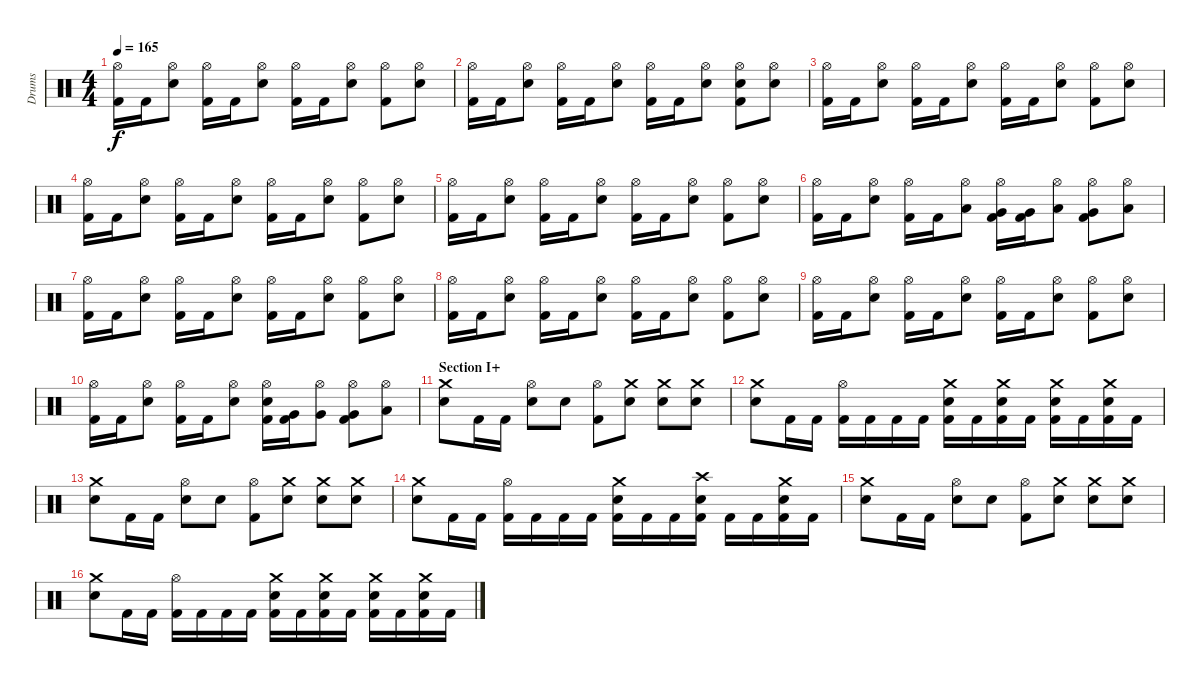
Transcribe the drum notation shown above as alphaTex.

\track ("Drums" "Drums") {instrument percussion}
\staff {score}
\articulation defaults
\ts (4 4)
\tempo 165
\clef neutral
\ks c
("Hi-Hat (open)" "Kick (hit) 2").16{dy f} "Kick (hit) 2".16 ("Hi-Hat (open)" "Snare (hit) 2").8 ("Hi-Hat (open)" "Kick (hit) 2").16 "Kick (hit) 2".16 ("Hi-Hat (open)" "Snare (hit) 2").8 ("Hi-Hat (open)" "Kick (hit) 2").16 "Kick (hit) 2".16 ("Hi-Hat (open)" "Snare (hit) 2").8 ("Hi-Hat (open)" "Kick (hit) 2").8 ("Hi-Hat (open)" "Snare (hit) 2").8 |
("Hi-Hat (open)" "Kick (hit) 2").16 "Kick (hit) 2".16 ("Hi-Hat (open)" "Snare (hit) 2").8 ("Hi-Hat (open)" "Kick (hit) 2").16 "Kick (hit) 2".16 ("Hi-Hat (open)" "Snare (hit) 2").8 ("Hi-Hat (open)" "Kick (hit) 2").16 "Kick (hit) 2".16 ("Hi-Hat (open)" "Snare (hit) 2").8 ("Hi-Hat (open)" "Snare (hit) 2" "Kick (hit) 2").8 ("Hi-Hat (open)" "Snare (hit) 2").8 |
("Hi-Hat (open)" "Kick (hit) 2").16 "Kick (hit) 2".16 ("Hi-Hat (open)" "Snare (hit) 2").8 ("Hi-Hat (open)" "Kick (hit) 2").16 "Kick (hit) 2".16 ("Hi-Hat (open)" "Snare (hit) 2").8 ("Hi-Hat (open)" "Kick (hit) 2").16 "Kick (hit) 2".16 ("Hi-Hat (open)" "Snare (hit) 2").8 ("Hi-Hat (open)" "Kick (hit) 2").8 ("Hi-Hat (open)" "Snare (hit) 2").8 |
("Hi-Hat (open)" "Kick (hit) 2").16 "Kick (hit) 2".16 ("Hi-Hat (open)" "Snare (hit) 2").8 ("Hi-Hat (open)" "Kick (hit) 2").16 "Kick (hit) 2".16 ("Hi-Hat (open)" "Snare (hit) 2").8 ("Hi-Hat (open)" "Kick (hit) 2").16 "Kick (hit) 2".16 ("Hi-Hat (open)" "Snare (hit) 2").8 ("Hi-Hat (open)" "Kick (hit) 2").8 ("Hi-Hat (open)" "Snare (hit) 2").8 |
("Hi-Hat (open)" "Kick (hit) 2").16 "Kick (hit) 2".16 ("Hi-Hat (open)" "Snare (hit) 2").8 ("Hi-Hat (open)" "Kick (hit) 2").16 "Kick (hit) 2".16 ("Hi-Hat (open)" "Snare (hit) 2").8 ("Hi-Hat (open)" "Kick (hit) 2").16 "Kick (hit) 2".16 ("Hi-Hat (open)" "Snare (hit) 2").8 ("Hi-Hat (open)" "Kick (hit) 2").8 ("Hi-Hat (open)" "Snare (hit) 2").8 |
("Hi-Hat (open)" "Kick (hit) 2").16 "Kick (hit) 2".16 ("Hi-Hat (open)" "Snare (hit) 2").8 ("Hi-Hat (open)" "Kick (hit) 2").16 "Kick (hit) 2".16 ("Hi-Hat (open)" "Low Tom (hit)").8 ("Hi-Hat (open)" "Very Low Tom (hit)" "Kick (hit) 2").16 ("Very Low Tom (hit)" "Kick (hit) 2").16 ("Hi-Hat (open)" "Low Tom (hit)").8 ("Hi-Hat (open)" "Very Low Tom (hit)" "Kick (hit) 2").8 ("Hi-Hat (open)" "Low Tom (hit)").8 |
("Hi-Hat (open)" "Kick (hit) 2").16 "Kick (hit) 2".16 ("Hi-Hat (open)" "Snare (hit) 2").8 ("Hi-Hat (open)" "Kick (hit) 2").16 "Kick (hit) 2".16 ("Hi-Hat (open)" "Snare (hit) 2").8 ("Hi-Hat (open)" "Kick (hit) 2").16 "Kick (hit) 2".16 ("Hi-Hat (open)" "Snare (hit) 2").8 ("Hi-Hat (open)" "Kick (hit) 2").8 ("Hi-Hat (open)" "Snare (hit) 2").8 |
("Hi-Hat (open)" "Kick (hit) 2").16 "Kick (hit) 2".16 ("Hi-Hat (open)" "Snare (hit) 2").8 ("Hi-Hat (open)" "Kick (hit) 2").16 "Kick (hit) 2".16 ("Hi-Hat (open)" "Snare (hit) 2").8 ("Hi-Hat (open)" "Kick (hit) 2").16 "Kick (hit) 2".16 ("Hi-Hat (open)" "Snare (hit) 2").8 ("Hi-Hat (open)" "Kick (hit) 2").8 ("Hi-Hat (open)" "Snare (hit) 2").8 |
("Hi-Hat (open)" "Kick (hit) 2").16 "Kick (hit) 2".16 ("Hi-Hat (open)" "Snare (hit) 2").8 ("Hi-Hat (open)" "Kick (hit) 2").16 "Kick (hit) 2".16 ("Hi-Hat (open)" "Snare (hit) 2").8 ("Hi-Hat (open)" "Kick (hit) 2").16 "Kick (hit) 2".16 ("Hi-Hat (open)" "Snare (hit) 2").8 ("Hi-Hat (open)" "Kick (hit) 2").8 ("Hi-Hat (open)" "Snare (hit) 2").8 |
("Hi-Hat (open)" "Kick (hit) 2").16 "Kick (hit) 2".16 ("Hi-Hat (open)" "Snare (hit) 2").8 ("Hi-Hat (open)" "Kick (hit) 2").16 "Kick (hit) 2".16 ("Hi-Hat (open)" "Snare (hit) 2").8 ("Hi-Hat (open)" "Snare (hit) 2" "Kick (hit) 2").16 ("Very Low Tom (hit)" "Kick (hit) 2").16 ("Hi-Hat (open)" "Very Low Tom (hit)").8 ("Hi-Hat (open)" "Very Low Tom (hit)" "Kick (hit) 2").8 ("Hi-Hat (open)" "Low Tom (hit)").8 |
\section ("" "Section I+")
("Crash medium (hit)" "Snare (hit) 2").8 "Kick (hit) 2".16 "Kick (hit) 2".16 ("Hi-Hat (open)" "Snare (hit) 2").8 "Snare (hit) 2".8 ("Hi-Hat (open)" "Kick (hit) 2").8 ("Crash medium (hit)" "Snare (hit) 2").8 ("Crash medium (hit)" "Snare (hit) 2").8 ("Crash medium (hit)" "Snare (hit) 2").8 |
("Crash medium (hit)" "Snare (hit) 2").8 "Kick (hit) 2".16 "Kick (hit) 2".16 ("Hi-Hat (open)" "Kick (hit) 2").16 "Kick (hit) 2".16 "Kick (hit) 2".16 "Kick (hit) 2".16 ("Crash medium (hit)" "Snare (hit) 2" "Kick (hit) 2").16 "Kick (hit) 2".16 ("Crash medium (hit)" "Snare (hit) 2" "Kick (hit) 2").16 "Kick (hit) 2".16 ("Crash medium (hit)" "Snare (hit) 2" "Kick (hit) 2").16 "Kick (hit) 2".16 ("Crash medium (hit)" "Snare (hit) 2" "Kick (hit) 2").16 "Kick (hit) 2".16 |
("Crash medium (hit)" "Snare (hit) 2").8 "Kick (hit) 2".16 "Kick (hit) 2".16 ("Hi-Hat (open)" "Snare (hit) 2").8 "Snare (hit) 2".8 ("Hi-Hat (open)" "Kick (hit) 2").8 ("Crash medium (hit)" "Snare (hit) 2").8 ("Crash medium (hit)" "Snare (hit) 2").8 ("Crash medium (hit)" "Snare (hit) 2").8 |
("Crash medium (hit)" "Snare (hit) 2").8 "Kick (hit) 2".16 "Kick (hit) 2".16 ("Hi-Hat (open)" "Kick (hit) 2").16 "Kick (hit) 2".16 "Kick (hit) 2".16 "Kick (hit) 2".16 ("Crash medium (hit)" "Snare (hit) 2" "Kick (hit) 2").16 "Kick (hit) 2".16 "Kick (hit) 2".16 ("Crash high (hit)" "Snare (hit) 2" "Kick (hit) 2").16 "Kick (hit) 2".16 "Kick (hit) 2".16 ("Crash medium (hit)" "Snare (hit) 2" "Kick (hit) 2").16 "Kick (hit) 2".16 |
("Crash medium (hit)" "Snare (hit) 2").8 "Kick (hit) 2".16 "Kick (hit) 2".16 ("Hi-Hat (open)" "Snare (hit) 2").8 "Snare (hit) 2".8 ("Hi-Hat (open)" "Kick (hit) 2").8 ("Crash medium (hit)" "Snare (hit) 2").8 ("Crash medium (hit)" "Snare (hit) 2").8 ("Crash medium (hit)" "Snare (hit) 2").8 |
("Crash medium (hit)" "Snare (hit) 2").8 "Kick (hit) 2".16 "Kick (hit) 2".16 ("Hi-Hat (open)" "Kick (hit) 2").16 "Kick (hit) 2".16 "Kick (hit) 2".16 "Kick (hit) 2".16 ("Crash medium (hit)" "Snare (hit) 2" "Kick (hit) 2").16 "Kick (hit) 2".16 ("Crash medium (hit)" "Snare (hit) 2" "Kick (hit) 2").16 "Kick (hit) 2".16 ("Crash medium (hit)" "Snare (hit) 2" "Kick (hit) 2").16 "Kick (hit) 2".16 ("Crash medium (hit)" "Snare (hit) 2" "Kick (hit) 2").16 "Kick (hit) 2".16
